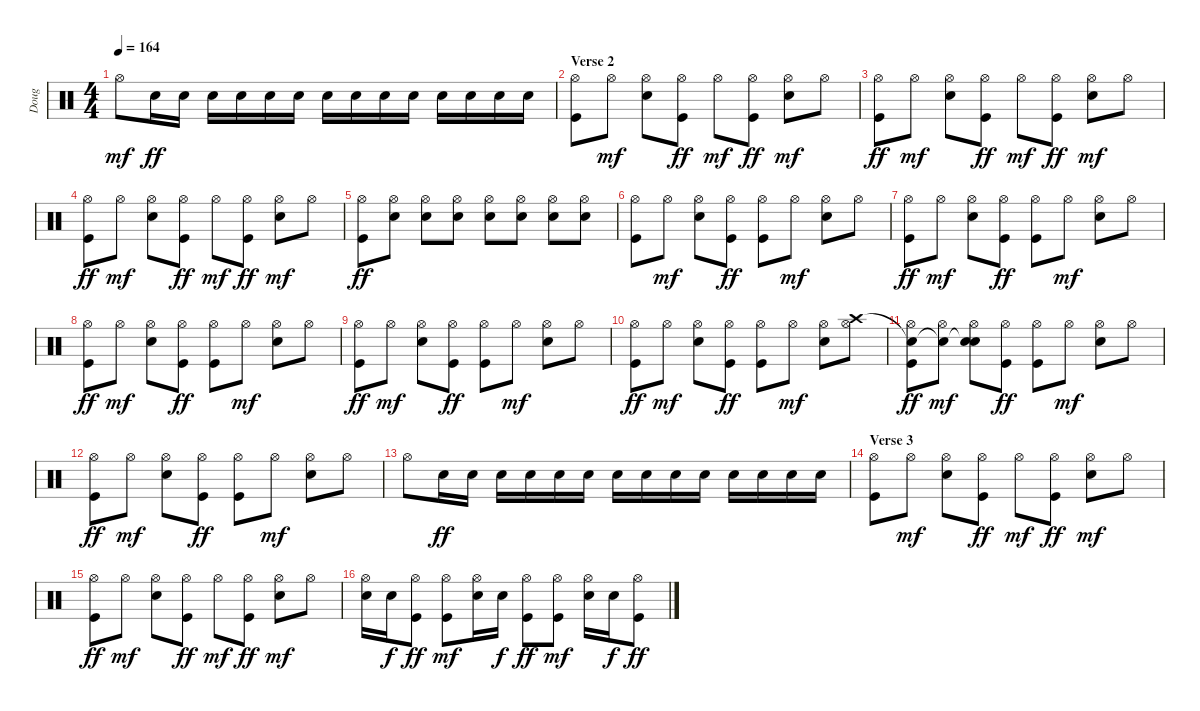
\track ("Doug" "Doug") {instrument percussion}
\staff {score}
\articulation defaults
\ts (4 4)
\tempo 164
\clef neutral
\ks c "Hi-Hat (open)".8{dy mf} "Electric Snare (hit)".16{dy ff} "Electric Snare (hit)".16 "Electric Snare (hit)".16 "Electric Snare (hit)".16 "Electric Snare (hit)".16 "Electric Snare (hit)".16 "Electric Snare (hit)".16 "Electric Snare (hit)".16 "Electric Snare (hit)".16 "Electric Snare (hit)".16 "Electric Snare (hit)".16 "Electric Snare (hit)".16 "Electric Snare (hit)".16 "Electric Snare (hit)".16
|
\section ("" "Verse 2")
("Hi-Hat (open)" "Kick (hit)").8 "Hi-Hat (open)".8{dy mf} ("Hi-Hat (open)" "Electric Snare (hit)").8 ("Hi-Hat (open)" "Kick (hit)").8{dy ff} "Hi-Hat (open)".8{dy mf} ("Hi-Hat (open)" "Kick (hit)").8{dy ff} ("Hi-Hat (open)" "Electric Snare (hit)").8{dy mf} "Hi-Hat (open)".8 |
("Hi-Hat (open)" "Kick (hit)").8{dy ff} "Hi-Hat (open)".8{dy mf} ("Hi-Hat (open)" "Electric Snare (hit)").8 ("Hi-Hat (open)" "Kick (hit)").8{dy ff} "Hi-Hat (open)".8{dy mf} ("Hi-Hat (open)" "Kick (hit)").8{dy ff} ("Hi-Hat (open)" "Electric Snare (hit)").8{dy mf} "Hi-Hat (open)".8 |
("Hi-Hat (open)" "Kick (hit)").8{dy ff} "Hi-Hat (open)".8{dy mf} ("Hi-Hat (open)" "Electric Snare (hit)").8 ("Hi-Hat (open)" "Kick (hit)").8{dy ff} "Hi-Hat (open)".8{dy mf} ("Hi-Hat (open)" "Kick (hit)").8{dy ff} ("Hi-Hat (open)" "Electric Snare (hit)").8{dy mf} "Hi-Hat (open)".8 |
("Hi-Hat (open)" "Kick (hit)").8{dy ff} ("Hi-Hat (open)" "Electric Snare (hit)").8 ("Hi-Hat (open)" "Electric Snare (hit)").8 ("Hi-Hat (open)" "Electric Snare (hit)").8 ("Hi-Hat (open)" "Electric Snare (hit)").8 ("Hi-Hat (open)" "Electric Snare (hit)").8 ("Hi-Hat (open)" "Electric Snare (hit)").8 ("Hi-Hat (open)" "Electric Snare (hit)").8 |
("Hi-Hat (open)" "Kick (hit)").8 "Hi-Hat (open)".8{dy mf} ("Hi-Hat (open)" "Electric Snare (hit)").8 ("Hi-Hat (open)" "Kick (hit)").8{dy ff} ("Hi-Hat (open)" "Kick (hit)").8 "Hi-Hat (open)".8{dy mf} ("Hi-Hat (open)" "Electric Snare (hit)").8 "Hi-Hat (open)".8 |
("Hi-Hat (open)" "Kick (hit)").8{dy ff} "Hi-Hat (open)".8{dy mf} ("Hi-Hat (open)" "Electric Snare (hit)").8 ("Hi-Hat (open)" "Kick (hit)").8{dy ff} ("Hi-Hat (open)" "Kick (hit)").8 "Hi-Hat (open)".8{dy mf} ("Hi-Hat (open)" "Electric Snare (hit)").8 "Hi-Hat (open)".8 |
("Hi-Hat (open)" "Kick (hit)").8{dy ff} "Hi-Hat (open)".8{dy mf} ("Hi-Hat (open)" "Electric Snare (hit)").8 ("Hi-Hat (open)" "Kick (hit)").8{dy ff} ("Hi-Hat (open)" "Kick (hit)").8 "Hi-Hat (open)".8{dy mf} ("Hi-Hat (open)" "Electric Snare (hit)").8 "Hi-Hat (open)".8 |
("Hi-Hat (open)" "Kick (hit)").8{dy ff} "Hi-Hat (open)".8{dy mf} ("Hi-Hat (open)" "Electric Snare (hit)").8 ("Hi-Hat (open)" "Kick (hit)").8{dy ff} ("Hi-Hat (open)" "Kick (hit)").8 "Hi-Hat (open)".8{dy mf} ("Hi-Hat (open)" "Electric Snare (hit)").8 "Hi-Hat (open)".8 |
("Hi-Hat (open)" "Kick (hit)").8{dy ff} "Hi-Hat (open)".8{dy mf} ("Hi-Hat (open)" "Electric Snare (hit)").8 ("Hi-Hat (open)" "Kick (hit)").8{dy ff} ("Hi-Hat (open)" "Kick (hit)").8 "Hi-Hat (open)".8{dy mf} ("Hi-Hat (open)" "Electric Snare (hit)").8 ("Crash high (hit)" "Hi-Hat (open)").8 |
("Snare (hit)"{t} "Hi-Hat (open)" "Kick (hit)").8{dy ff} ("Snare (hit)"{t} "Hi-Hat (open)").8{dy mf} ("Snare (hit)"{t} "Hi-Hat (open)" "Electric Snare (hit)").8 ("Hi-Hat (open)" "Kick (hit)").8{dy ff} ("Hi-Hat (open)" "Kick (hit)").8 "Hi-Hat (open)".8{dy mf} ("Hi-Hat (open)" "Electric Snare (hit)").8 "Hi-Hat (open)".8 |
("Hi-Hat (open)" "Kick (hit)").8{dy ff} "Hi-Hat (open)".8{dy mf} ("Hi-Hat (open)" "Electric Snare (hit)").8 ("Hi-Hat (open)" "Kick (hit)").8{dy ff} ("Hi-Hat (open)" "Kick (hit)").8 "Hi-Hat (open)".8{dy mf} ("Hi-Hat (open)" "Electric Snare (hit)").8 "Hi-Hat (open)".8 |
"Hi-Hat (open)".8 "Electric Snare (hit)".16{dy ff} "Electric Snare (hit)".16 "Electric Snare (hit)".16 "Electric Snare (hit)".16 "Electric Snare (hit)".16 "Electric Snare (hit)".16 "Electric Snare (hit)".16 "Electric Snare (hit)".16 "Electric Snare (hit)".16 "Electric Snare (hit)".16 "Electric Snare (hit)".16 "Electric Snare (hit)".16 "Electric Snare (hit)".16 "Electric Snare (hit)".16 |
\section ("" "Verse 3")
("Hi-Hat (open)" "Kick (hit)").8 "Hi-Hat (open)".8{dy mf} ("Hi-Hat (open)" "Electric Snare (hit)").8 ("Hi-Hat (open)" "Kick (hit)").8{dy ff} "Hi-Hat (open)".8{dy mf} ("Hi-Hat (open)" "Kick (hit)").8{dy ff} ("Hi-Hat (open)" "Electric Snare (hit)").8{dy mf} "Hi-Hat (open)".8 |
("Hi-Hat (open)" "Kick (hit)").8{dy ff} "Hi-Hat (open)".8{dy mf} ("Hi-Hat (open)" "Electric Snare (hit)").8 ("Hi-Hat (open)" "Kick (hit)").8{dy ff} "Hi-Hat (open)".8{dy mf} ("Hi-Hat (open)" "Kick (hit)").8{dy ff} ("Hi-Hat (open)" "Electric Snare (hit)").8{dy mf} "Hi-Hat (open)".8 |
("Hi-Hat (open)" "Electric Snare (hit)").16 "Electric Snare (hit)".16{dy f} ("Hi-Hat (open)" "Kick (hit)").8{dy ff} ("Hi-Hat (open)" "Kick (hit)").8{dy mf} ("Hi-Hat (open)" "Electric Snare (hit)").16 "Electric Snare (hit)".16{dy f} ("Hi-Hat (open)" "Kick (hit)").8{dy ff} ("Hi-Hat (open)" "Kick (hit)").8{dy mf} ("Hi-Hat (open)" "Electric Snare (hit)").16 "Electric Snare (hit)".16{dy f} ("Hi-Hat (open)" "Kick (hit)").8{dy ff}
